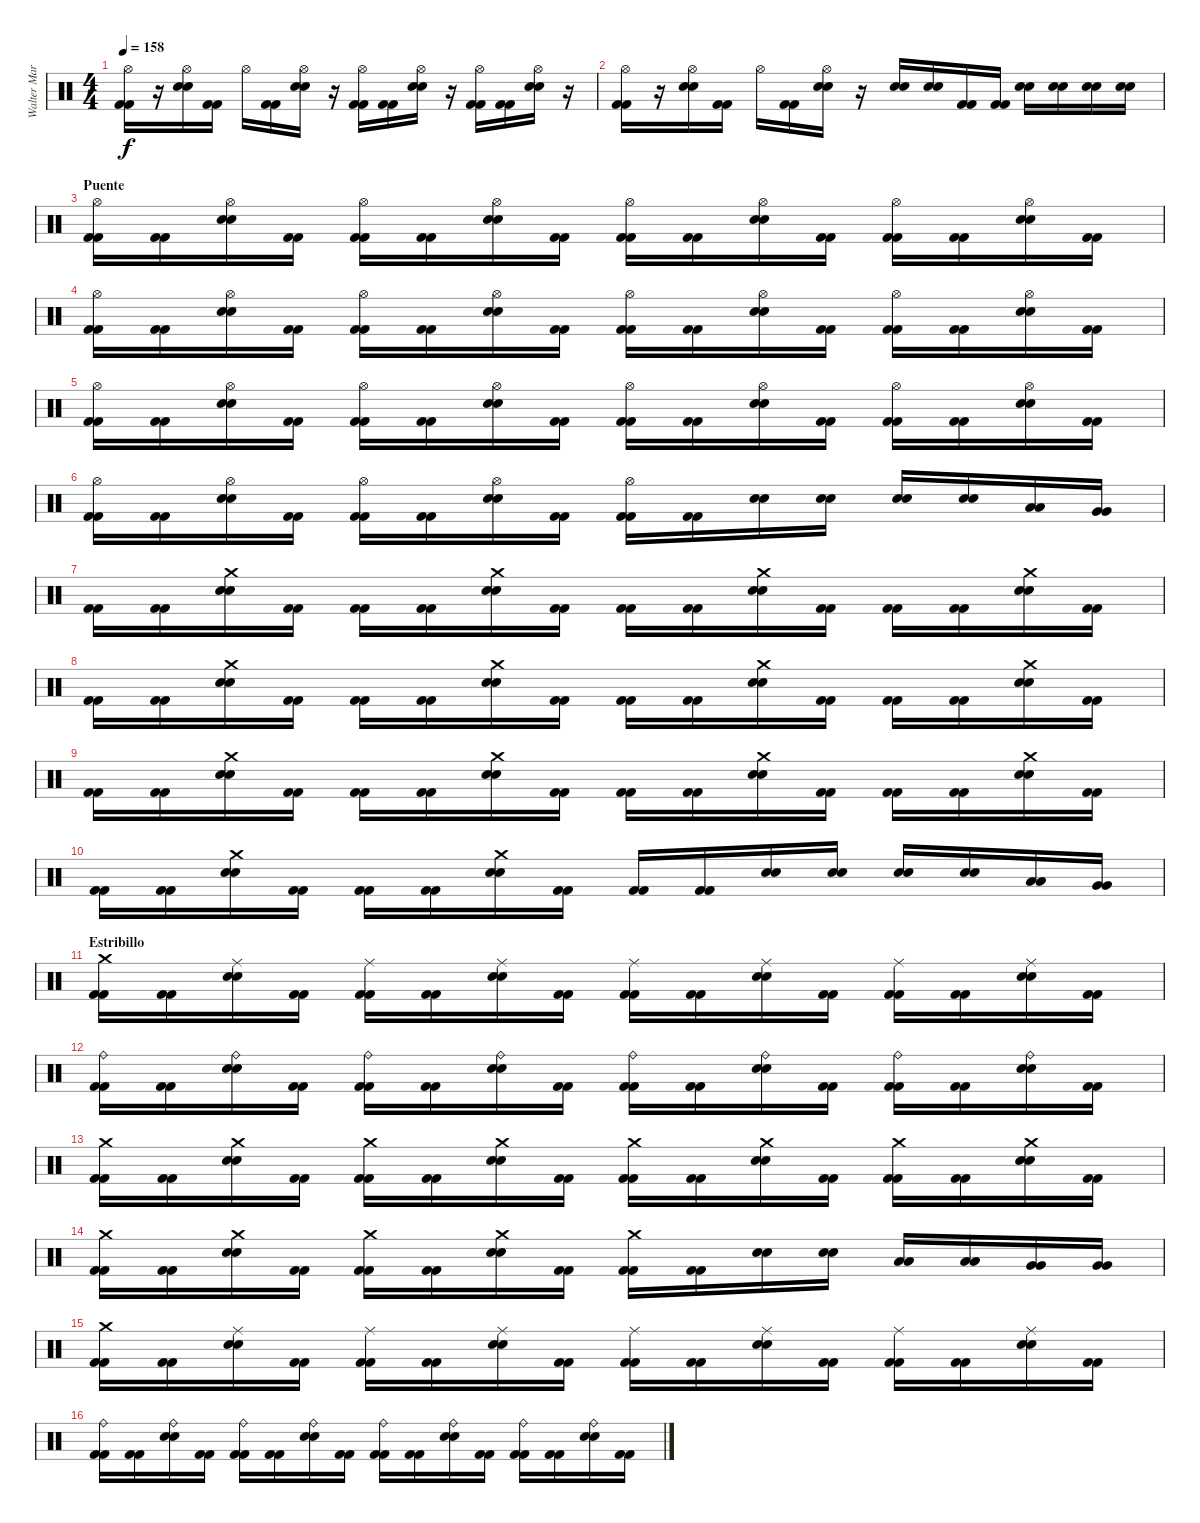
\track ("Walter Martinez (Bateria)" "Walter Mar") {instrument percussion}
\staff {score}
\articulation defaults
\ts (4 4)
\tempo 158
\clef neutral
\ks c
("Hi-Hat (open)" "Kick (hit) 2" "Kick (hit) 2").16{dy f} r.16 ("Hi-Hat (open)" "Snare (hit) 2" "Snare (hit) 2").16 ("Kick (hit) 2" "Kick (hit) 2").16 "Hi-Hat (open)".16 ("Kick (hit) 2" "Kick (hit) 2").16 ("Hi-Hat (open)" "Snare (hit) 2" "Snare (hit) 2").16 r.16 ("Hi-Hat (open)" "Kick (hit) 2" "Kick (hit) 2").16 ("Kick (hit) 2" "Kick (hit) 2").16 ("Hi-Hat (open)" "Snare (hit) 2" "Snare (hit) 2").16 r.16 ("Hi-Hat (open)" "Kick (hit) 2" "Kick (hit) 2").16 ("Kick (hit) 2" "Kick (hit) 2").16 ("Hi-Hat (open)" "Snare (hit) 2" "Snare (hit) 2").16 r.16 |
("Hi-Hat (open)" "Kick (hit) 2" "Kick (hit) 2").16 r.16 ("Hi-Hat (open)" "Snare (hit) 2" "Snare (hit) 2").16 ("Kick (hit) 2" "Kick (hit) 2").16 "Hi-Hat (open)".16 ("Kick (hit) 2" "Kick (hit) 2").16 ("Hi-Hat (open)" "Snare (hit) 2" "Snare (hit) 2").16 r.16 ("Snare (hit) 2" "Snare (hit) 2").16 ("Snare (hit) 2" "Snare (hit) 2").16 ("Kick (hit) 2" "Kick (hit) 2").16 ("Kick (hit) 2" "Kick (hit) 2").16 ("Snare (hit) 2" "Snare (hit) 2").16 ("Snare (hit) 2" "Snare (hit) 2").16 ("Snare (hit) 2" "Snare (hit) 2").16 ("Snare (hit) 2" "Snare (hit) 2").16 |
\section ("" "Puente")
("Hi-Hat (open)" "Kick (hit) 2" "Kick (hit) 2").16 ("Kick (hit) 2" "Kick (hit) 2").16 ("Hi-Hat (open)" "Snare (hit) 2" "Snare (hit) 2").16 ("Kick (hit) 2" "Kick (hit) 2").16 ("Hi-Hat (open)" "Kick (hit) 2" "Kick (hit) 2").16 ("Kick (hit) 2" "Kick (hit) 2").16 ("Hi-Hat (open)" "Snare (hit) 2" "Snare (hit) 2").16 ("Kick (hit) 2" "Kick (hit) 2").16 ("Hi-Hat (open)" "Kick (hit) 2" "Kick (hit) 2").16 ("Kick (hit) 2" "Kick (hit) 2").16 ("Hi-Hat (open)" "Snare (hit) 2" "Snare (hit) 2").16 ("Kick (hit) 2" "Kick (hit) 2").16 ("Hi-Hat (open)" "Kick (hit) 2" "Kick (hit) 2").16 ("Kick (hit) 2" "Kick (hit) 2").16 ("Hi-Hat (open)" "Snare (hit) 2" "Snare (hit) 2").16 ("Kick (hit) 2" "Kick (hit) 2").16 |
("Hi-Hat (open)" "Kick (hit) 2" "Kick (hit) 2").16 ("Kick (hit) 2" "Kick (hit) 2").16 ("Hi-Hat (open)" "Snare (hit) 2" "Snare (hit) 2").16 ("Kick (hit) 2" "Kick (hit) 2").16 ("Hi-Hat (open)" "Kick (hit) 2" "Kick (hit) 2").16 ("Kick (hit) 2" "Kick (hit) 2").16 ("Hi-Hat (open)" "Snare (hit) 2" "Snare (hit) 2").16 ("Kick (hit) 2" "Kick (hit) 2").16 ("Hi-Hat (open)" "Kick (hit) 2" "Kick (hit) 2").16 ("Kick (hit) 2" "Kick (hit) 2").16 ("Hi-Hat (open)" "Snare (hit) 2" "Snare (hit) 2").16 ("Kick (hit) 2" "Kick (hit) 2").16 ("Hi-Hat (open)" "Kick (hit) 2" "Kick (hit) 2").16 ("Kick (hit) 2" "Kick (hit) 2").16 ("Hi-Hat (open)" "Snare (hit) 2" "Snare (hit) 2").16 ("Kick (hit) 2" "Kick (hit) 2").16 |
("Hi-Hat (open)" "Kick (hit) 2" "Kick (hit) 2").16 ("Kick (hit) 2" "Kick (hit) 2").16 ("Hi-Hat (open)" "Snare (hit) 2" "Snare (hit) 2").16 ("Kick (hit) 2" "Kick (hit) 2").16 ("Hi-Hat (open)" "Kick (hit) 2" "Kick (hit) 2").16 ("Kick (hit) 2" "Kick (hit) 2").16 ("Hi-Hat (open)" "Snare (hit) 2" "Snare (hit) 2").16 ("Kick (hit) 2" "Kick (hit) 2").16 ("Hi-Hat (open)" "Kick (hit) 2" "Kick (hit) 2").16 ("Kick (hit) 2" "Kick (hit) 2").16 ("Hi-Hat (open)" "Snare (hit) 2" "Snare (hit) 2").16 ("Kick (hit) 2" "Kick (hit) 2").16 ("Hi-Hat (open)" "Kick (hit) 2" "Kick (hit) 2").16 ("Kick (hit) 2" "Kick (hit) 2").16 ("Hi-Hat (open)" "Snare (hit) 2" "Snare (hit) 2").16 ("Kick (hit) 2" "Kick (hit) 2").16 |
("Hi-Hat (open)" "Kick (hit) 2" "Kick (hit) 2").16 ("Kick (hit) 2" "Kick (hit) 2").16 ("Hi-Hat (open)" "Snare (hit) 2" "Snare (hit) 2").16 ("Kick (hit) 2" "Kick (hit) 2").16 ("Hi-Hat (open)" "Kick (hit) 2" "Kick (hit) 2").16 ("Kick (hit) 2" "Kick (hit) 2").16 ("Hi-Hat (open)" "Snare (hit) 2" "Snare (hit) 2").16 ("Kick (hit) 2" "Kick (hit) 2").16 ("Hi-Hat (open)" "Kick (hit) 2" "Kick (hit) 2").16 ("Kick (hit) 2" "Kick (hit) 2").16 ("Snare (hit) 2" "Snare (hit) 2").16 ("Snare (hit) 2" "Snare (hit) 2").16 ("Snare (hit) 2" "Snare (hit) 2").16 ("Snare (hit) 2" "Snare (hit) 2").16 ("Low Tom (hit)" "Low Tom (hit)").16 ("Very Low Tom (hit)" "Very Low Tom (hit)").16 |
("Kick (hit) 2" "Kick (hit) 2").16 ("Kick (hit) 2" "Kick (hit) 2").16 ("Crash medium (hit)" "Snare (hit) 2" "Snare (hit) 2").16 ("Kick (hit) 2" "Kick (hit) 2").16 ("Kick (hit) 2" "Kick (hit) 2").16 ("Kick (hit) 2" "Kick (hit) 2").16 ("Crash medium (hit)" "Snare (hit) 2" "Snare (hit) 2").16 ("Kick (hit) 2" "Kick (hit) 2").16 ("Kick (hit) 2" "Kick (hit) 2").16 ("Kick (hit) 2" "Kick (hit) 2").16 ("Crash medium (hit)" "Snare (hit) 2" "Snare (hit) 2").16 ("Kick (hit) 2" "Kick (hit) 2").16 ("Kick (hit) 2" "Kick (hit) 2").16 ("Kick (hit) 2" "Kick (hit) 2").16 ("Crash medium (hit)" "Snare (hit) 2" "Snare (hit) 2").16 ("Kick (hit) 2" "Kick (hit) 2").16 |
("Kick (hit) 2" "Kick (hit) 2").16 ("Kick (hit) 2" "Kick (hit) 2").16 ("Crash medium (hit)" "Snare (hit) 2" "Snare (hit) 2").16 ("Kick (hit) 2" "Kick (hit) 2").16 ("Kick (hit) 2" "Kick (hit) 2").16 ("Kick (hit) 2" "Kick (hit) 2").16 ("Crash medium (hit)" "Snare (hit) 2" "Snare (hit) 2").16 ("Kick (hit) 2" "Kick (hit) 2").16 ("Kick (hit) 2" "Kick (hit) 2").16 ("Kick (hit) 2" "Kick (hit) 2").16 ("Crash medium (hit)" "Snare (hit) 2" "Snare (hit) 2").16 ("Kick (hit) 2" "Kick (hit) 2").16 ("Kick (hit) 2" "Kick (hit) 2").16 ("Kick (hit) 2" "Kick (hit) 2").16 ("Crash medium (hit)" "Snare (hit) 2" "Snare (hit) 2").16 ("Kick (hit) 2" "Kick (hit) 2").16 |
("Kick (hit) 2" "Kick (hit) 2").16 ("Kick (hit) 2" "Kick (hit) 2").16 ("Crash medium (hit)" "Snare (hit) 2" "Snare (hit) 2").16 ("Kick (hit) 2" "Kick (hit) 2").16 ("Kick (hit) 2" "Kick (hit) 2").16 ("Kick (hit) 2" "Kick (hit) 2").16 ("Crash medium (hit)" "Snare (hit) 2" "Snare (hit) 2").16 ("Kick (hit) 2" "Kick (hit) 2").16 ("Kick (hit) 2" "Kick (hit) 2").16 ("Kick (hit) 2" "Kick (hit) 2").16 ("Crash medium (hit)" "Snare (hit) 2" "Snare (hit) 2").16 ("Kick (hit) 2" "Kick (hit) 2").16 ("Kick (hit) 2" "Kick (hit) 2").16 ("Kick (hit) 2" "Kick (hit) 2").16 ("Crash medium (hit)" "Snare (hit) 2" "Snare (hit) 2").16 ("Kick (hit) 2" "Kick (hit) 2").16 |
("Kick (hit) 2" "Kick (hit) 2").16 ("Kick (hit) 2" "Kick (hit) 2").16 ("Crash medium (hit)" "Snare (hit) 2" "Snare (hit) 2").16 ("Kick (hit) 2" "Kick (hit) 2").16 ("Kick (hit) 2" "Kick (hit) 2").16 ("Kick (hit) 2" "Kick (hit) 2").16 ("Crash medium (hit)" "Snare (hit) 2" "Snare (hit) 2").16 ("Kick (hit) 2" "Kick (hit) 2").16 ("Kick (hit) 2" "Kick (hit) 2").16 ("Kick (hit) 2" "Kick (hit) 2").16 ("Snare (hit) 2" "Snare (hit) 2").16 ("Snare (hit) 2" "Snare (hit) 2").16 ("Snare (hit) 2" "Snare (hit) 2").16 ("Snare (hit) 2" "Snare (hit) 2").16 ("Low Tom (hit)" "Low Tom (hit)").16 ("Very Low Tom (hit)" "Very Low Tom (hit)").16 |
\section ("" "Estribillo")
("Crash medium (hit)" "Kick (hit) 2" "Kick (hit) 2").16 ("Kick (hit) 2" "Kick (hit) 2").16 ("Ride (middle)" "Snare (hit) 2" "Snare (hit) 2").16 ("Kick (hit) 2" "Kick (hit) 2").16 ("Ride (middle)" "Kick (hit) 2" "Kick (hit) 2").16 ("Kick (hit) 2" "Kick (hit) 2").16 ("Ride (middle)" "Snare (hit) 2" "Snare (hit) 2").16 ("Kick (hit) 2" "Kick (hit) 2").16 ("Ride (middle)" "Kick (hit) 2" "Kick (hit) 2").16 ("Kick (hit) 2" "Kick (hit) 2").16 ("Ride (middle)" "Snare (hit) 2" "Snare (hit) 2").16 ("Kick (hit) 2" "Kick (hit) 2").16 ("Ride (middle)" "Kick (hit) 2" "Kick (hit) 2").16 ("Kick (hit) 2" "Kick (hit) 2").16 ("Ride (middle)" "Snare (hit) 2" "Snare (hit) 2").16 ("Kick (hit) 2" "Kick (hit) 2").16 |
("Ride (bell)" "Kick (hit) 2" "Kick (hit) 2").16 ("Kick (hit) 2" "Kick (hit) 2").16 ("Ride (bell)" "Snare (hit) 2" "Snare (hit) 2").16 ("Kick (hit) 2" "Kick (hit) 2").16 ("Ride (bell)" "Kick (hit) 2" "Kick (hit) 2").16 ("Kick (hit) 2" "Kick (hit) 2").16 ("Ride (bell)" "Snare (hit) 2" "Snare (hit) 2").16 ("Kick (hit) 2" "Kick (hit) 2").16 ("Ride (bell)" "Kick (hit) 2" "Kick (hit) 2").16 ("Kick (hit) 2" "Kick (hit) 2").16 ("Ride (bell)" "Snare (hit) 2" "Snare (hit) 2").16 ("Kick (hit) 2" "Kick (hit) 2").16 ("Ride (bell)" "Kick (hit) 2" "Kick (hit) 2").16 ("Kick (hit) 2" "Kick (hit) 2").16 ("Ride (bell)" "Snare (hit) 2" "Snare (hit) 2").16 ("Kick (hit) 2" "Kick (hit) 2").16 |
("Crash medium (hit)" "Kick (hit) 2" "Kick (hit) 2").16 ("Kick (hit) 2" "Kick (hit) 2").16 ("Crash medium (hit)" "Snare (hit) 2" "Snare (hit) 2").16 ("Kick (hit) 2" "Kick (hit) 2").16 ("Crash medium (hit)" "Kick (hit) 2" "Kick (hit) 2").16 ("Kick (hit) 2" "Kick (hit) 2").16 ("Crash medium (hit)" "Snare (hit) 2" "Snare (hit) 2").16 ("Kick (hit) 2" "Kick (hit) 2").16 ("Crash medium (hit)" "Kick (hit) 2" "Kick (hit) 2").16 ("Kick (hit) 2" "Kick (hit) 2").16 ("Crash medium (hit)" "Snare (hit) 2" "Snare (hit) 2").16 ("Kick (hit) 2" "Kick (hit) 2").16 ("Crash medium (hit)" "Kick (hit) 2" "Kick (hit) 2").16 ("Kick (hit) 2" "Kick (hit) 2").16 ("Crash medium (hit)" "Snare (hit) 2" "Snare (hit) 2").16 ("Kick (hit) 2" "Kick (hit) 2").16 |
("Crash medium (hit)" "Kick (hit) 2" "Kick (hit) 2").16 ("Kick (hit) 2" "Kick (hit) 2").16 ("Crash medium (hit)" "Snare (hit) 2" "Snare (hit) 2").16 ("Kick (hit) 2" "Kick (hit) 2").16 ("Crash medium (hit)" "Kick (hit) 2" "Kick (hit) 2").16 ("Kick (hit) 2" "Kick (hit) 2").16 ("Crash medium (hit)" "Snare (hit) 2" "Snare (hit) 2").16 ("Kick (hit) 2" "Kick (hit) 2").16 ("Crash medium (hit)" "Kick (hit) 2" "Kick (hit) 2").16 ("Kick (hit) 2" "Kick (hit) 2").16 ("Snare (hit) 2" "Snare (hit) 2").16 ("Snare (hit) 2" "Snare (hit) 2").16 ("Low Tom (hit)" "Low Tom (hit)").16 ("Low Tom (hit)" "Low Tom (hit)").16 ("Very Low Tom (hit)" "Very Low Tom (hit)").16 ("Very Low Tom (hit)" "Very Low Tom (hit)").16 |
("Crash medium (hit)" "Kick (hit) 2" "Kick (hit) 2").16 ("Kick (hit) 2" "Kick (hit) 2").16 ("Ride (middle)" "Snare (hit) 2" "Snare (hit) 2").16 ("Kick (hit) 2" "Kick (hit) 2").16 ("Ride (middle)" "Kick (hit) 2" "Kick (hit) 2").16 ("Kick (hit) 2" "Kick (hit) 2").16 ("Ride (middle)" "Snare (hit) 2" "Snare (hit) 2").16 ("Kick (hit) 2" "Kick (hit) 2").16 ("Ride (middle)" "Kick (hit) 2" "Kick (hit) 2").16 ("Kick (hit) 2" "Kick (hit) 2").16 ("Ride (middle)" "Snare (hit) 2" "Snare (hit) 2").16 ("Kick (hit) 2" "Kick (hit) 2").16 ("Ride (middle)" "Kick (hit) 2" "Kick (hit) 2").16 ("Kick (hit) 2" "Kick (hit) 2").16 ("Ride (middle)" "Snare (hit) 2" "Snare (hit) 2").16 ("Kick (hit) 2" "Kick (hit) 2").16 |
("Ride (bell)" "Kick (hit) 2" "Kick (hit) 2").16 ("Kick (hit) 2" "Kick (hit) 2").16 ("Ride (bell)" "Snare (hit) 2" "Snare (hit) 2").16 ("Kick (hit) 2" "Kick (hit) 2").16 ("Ride (bell)" "Kick (hit) 2" "Kick (hit) 2").16 ("Kick (hit) 2" "Kick (hit) 2").16 ("Ride (bell)" "Snare (hit) 2" "Snare (hit) 2").16 ("Kick (hit) 2" "Kick (hit) 2").16 ("Ride (bell)" "Kick (hit) 2" "Kick (hit) 2").16 ("Kick (hit) 2" "Kick (hit) 2").16 ("Ride (bell)" "Snare (hit) 2" "Snare (hit) 2").16 ("Kick (hit) 2" "Kick (hit) 2").16 ("Ride (bell)" "Kick (hit) 2" "Kick (hit) 2").16 ("Kick (hit) 2" "Kick (hit) 2").16 ("Ride (bell)" "Snare (hit) 2" "Snare (hit) 2").16 ("Kick (hit) 2" "Kick (hit) 2").16
